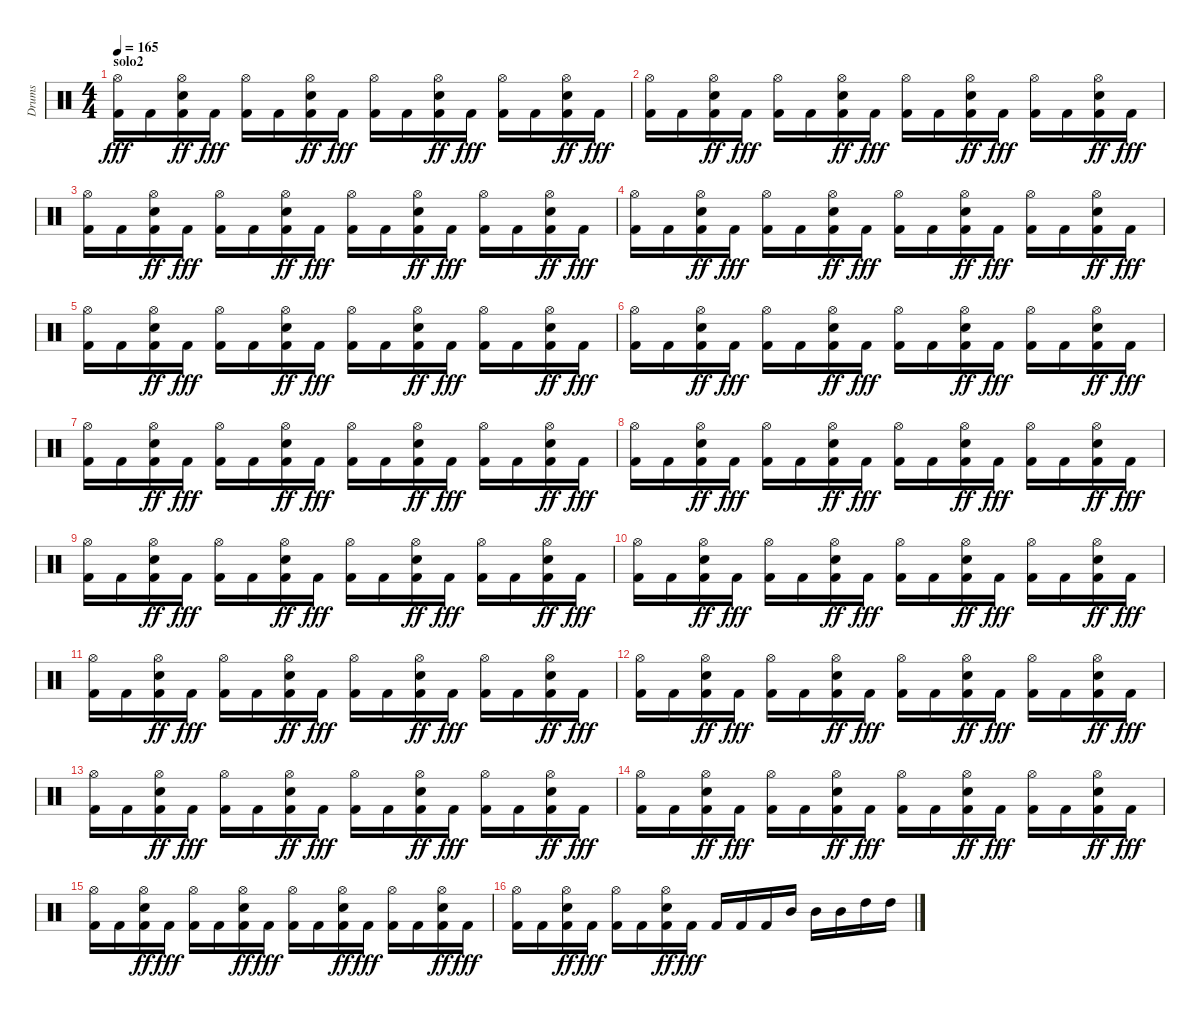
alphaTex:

\track ("Drums" "Drums") {instrument percussion}
\staff {score}
\articulation defaults
\ts (4 4)
\section ("" "solo2")
\tempo 165
\clef neutral
\ks c
("Kick (hit) 2" "Hi-Hat (open)").16{dy fff} "Kick (hit) 2".16 ("Kick (hit) 2" "Snare (hit) 2" "Hi-Hat (open)").16{dy ff} "Kick (hit) 2".16{dy fff} ("Kick (hit) 2" "Hi-Hat (open)").16 "Kick (hit) 2".16 ("Kick (hit) 2" "Snare (hit) 2" "Hi-Hat (open)").16{dy ff} "Kick (hit) 2".16{dy fff} ("Kick (hit) 2" "Hi-Hat (open)").16 "Kick (hit) 2".16 ("Kick (hit) 2" "Snare (hit) 2" "Hi-Hat (open)").16{dy ff} "Kick (hit) 2".16{dy fff} ("Kick (hit) 2" "Hi-Hat (open)").16 "Kick (hit) 2".16 ("Kick (hit) 2" "Snare (hit) 2" "Hi-Hat (open)").16{dy ff} "Kick (hit) 2".16{dy fff} |
("Kick (hit) 2" "Hi-Hat (open)").16 "Kick (hit) 2".16 ("Kick (hit) 2" "Snare (hit) 2" "Hi-Hat (open)").16{dy ff} "Kick (hit) 2".16{dy fff} ("Kick (hit) 2" "Hi-Hat (open)").16 "Kick (hit) 2".16 ("Kick (hit) 2" "Snare (hit) 2" "Hi-Hat (open)").16{dy ff} "Kick (hit) 2".16{dy fff} ("Kick (hit) 2" "Hi-Hat (open)").16 "Kick (hit) 2".16 ("Kick (hit) 2" "Snare (hit) 2" "Hi-Hat (open)").16{dy ff} "Kick (hit) 2".16{dy fff} ("Kick (hit) 2" "Hi-Hat (open)").16 "Kick (hit) 2".16 ("Kick (hit) 2" "Snare (hit) 2" "Hi-Hat (open)").16{dy ff} "Kick (hit) 2".16{dy fff} |
("Kick (hit) 2" "Hi-Hat (open)").16 "Kick (hit) 2".16 ("Kick (hit) 2" "Snare (hit) 2" "Hi-Hat (open)").16{dy ff} "Kick (hit) 2".16{dy fff} ("Kick (hit) 2" "Hi-Hat (open)").16 "Kick (hit) 2".16 ("Kick (hit) 2" "Snare (hit) 2" "Hi-Hat (open)").16{dy ff} "Kick (hit) 2".16{dy fff} ("Kick (hit) 2" "Hi-Hat (open)").16 "Kick (hit) 2".16 ("Kick (hit) 2" "Snare (hit) 2" "Hi-Hat (open)").16{dy ff} "Kick (hit) 2".16{dy fff} ("Kick (hit) 2" "Hi-Hat (open)").16 "Kick (hit) 2".16 ("Kick (hit) 2" "Snare (hit) 2" "Hi-Hat (open)").16{dy ff} "Kick (hit) 2".16{dy fff} |
("Kick (hit) 2" "Hi-Hat (open)").16 "Kick (hit) 2".16 ("Kick (hit) 2" "Snare (hit) 2" "Hi-Hat (open)").16{dy ff} "Kick (hit) 2".16{dy fff} ("Kick (hit) 2" "Hi-Hat (open)").16 "Kick (hit) 2".16 ("Kick (hit) 2" "Snare (hit) 2" "Hi-Hat (open)").16{dy ff} "Kick (hit) 2".16{dy fff} ("Kick (hit) 2" "Hi-Hat (open)").16 "Kick (hit) 2".16 ("Kick (hit) 2" "Snare (hit) 2" "Hi-Hat (open)").16{dy ff} "Kick (hit) 2".16{dy fff} ("Kick (hit) 2" "Hi-Hat (open)").16 "Kick (hit) 2".16 ("Kick (hit) 2" "Snare (hit) 2" "Hi-Hat (open)").16{dy ff} "Kick (hit) 2".16{dy fff} |
("Kick (hit) 2" "Hi-Hat (open)").16 "Kick (hit) 2".16 ("Kick (hit) 2" "Snare (hit) 2" "Hi-Hat (open)").16{dy ff} "Kick (hit) 2".16{dy fff} ("Kick (hit) 2" "Hi-Hat (open)").16 "Kick (hit) 2".16 ("Kick (hit) 2" "Snare (hit) 2" "Hi-Hat (open)").16{dy ff} "Kick (hit) 2".16{dy fff} ("Kick (hit) 2" "Hi-Hat (open)").16 "Kick (hit) 2".16 ("Kick (hit) 2" "Snare (hit) 2" "Hi-Hat (open)").16{dy ff} "Kick (hit) 2".16{dy fff} ("Kick (hit) 2" "Hi-Hat (open)").16 "Kick (hit) 2".16 ("Kick (hit) 2" "Snare (hit) 2" "Hi-Hat (open)").16{dy ff} "Kick (hit) 2".16{dy fff} |
("Kick (hit) 2" "Hi-Hat (open)").16 "Kick (hit) 2".16 ("Kick (hit) 2" "Snare (hit) 2" "Hi-Hat (open)").16{dy ff} "Kick (hit) 2".16{dy fff} ("Kick (hit) 2" "Hi-Hat (open)").16 "Kick (hit) 2".16 ("Kick (hit) 2" "Snare (hit) 2" "Hi-Hat (open)").16{dy ff} "Kick (hit) 2".16{dy fff} ("Kick (hit) 2" "Hi-Hat (open)").16 "Kick (hit) 2".16 ("Kick (hit) 2" "Snare (hit) 2" "Hi-Hat (open)").16{dy ff} "Kick (hit) 2".16{dy fff} ("Kick (hit) 2" "Hi-Hat (open)").16 "Kick (hit) 2".16 ("Kick (hit) 2" "Snare (hit) 2" "Hi-Hat (open)").16{dy ff} "Kick (hit) 2".16{dy fff} |
("Kick (hit) 2" "Hi-Hat (open)").16 "Kick (hit) 2".16 ("Kick (hit) 2" "Snare (hit) 2" "Hi-Hat (open)").16{dy ff} "Kick (hit) 2".16{dy fff} ("Kick (hit) 2" "Hi-Hat (open)").16 "Kick (hit) 2".16 ("Kick (hit) 2" "Snare (hit) 2" "Hi-Hat (open)").16{dy ff} "Kick (hit) 2".16{dy fff} ("Kick (hit) 2" "Hi-Hat (open)").16 "Kick (hit) 2".16 ("Kick (hit) 2" "Snare (hit) 2" "Hi-Hat (open)").16{dy ff} "Kick (hit) 2".16{dy fff} ("Kick (hit) 2" "Hi-Hat (open)").16 "Kick (hit) 2".16 ("Kick (hit) 2" "Snare (hit) 2" "Hi-Hat (open)").16{dy ff} "Kick (hit) 2".16{dy fff} |
("Kick (hit) 2" "Hi-Hat (open)").16 "Kick (hit) 2".16 ("Kick (hit) 2" "Snare (hit) 2" "Hi-Hat (open)").16{dy ff} "Kick (hit) 2".16{dy fff} ("Kick (hit) 2" "Hi-Hat (open)").16 "Kick (hit) 2".16 ("Kick (hit) 2" "Snare (hit) 2" "Hi-Hat (open)").16{dy ff} "Kick (hit) 2".16{dy fff} ("Kick (hit) 2" "Hi-Hat (open)").16 "Kick (hit) 2".16 ("Kick (hit) 2" "Snare (hit) 2" "Hi-Hat (open)").16{dy ff} "Kick (hit) 2".16{dy fff} ("Kick (hit) 2" "Hi-Hat (open)").16 "Kick (hit) 2".16 ("Kick (hit) 2" "Snare (hit) 2" "Hi-Hat (open)").16{dy ff} "Kick (hit) 2".16{dy fff} |
("Kick (hit) 2" "Hi-Hat (open)").16 "Kick (hit) 2".16 ("Kick (hit) 2" "Snare (hit) 2" "Hi-Hat (open)").16{dy ff} "Kick (hit) 2".16{dy fff} ("Kick (hit) 2" "Hi-Hat (open)").16 "Kick (hit) 2".16 ("Kick (hit) 2" "Snare (hit) 2" "Hi-Hat (open)").16{dy ff} "Kick (hit) 2".16{dy fff} ("Kick (hit) 2" "Hi-Hat (open)").16 "Kick (hit) 2".16 ("Kick (hit) 2" "Snare (hit) 2" "Hi-Hat (open)").16{dy ff} "Kick (hit) 2".16{dy fff} ("Kick (hit) 2" "Hi-Hat (open)").16 "Kick (hit) 2".16 ("Kick (hit) 2" "Snare (hit) 2" "Hi-Hat (open)").16{dy ff} "Kick (hit) 2".16{dy fff} |
("Kick (hit) 2" "Hi-Hat (open)").16 "Kick (hit) 2".16 ("Kick (hit) 2" "Snare (hit) 2" "Hi-Hat (open)").16{dy ff} "Kick (hit) 2".16{dy fff} ("Kick (hit) 2" "Hi-Hat (open)").16 "Kick (hit) 2".16 ("Kick (hit) 2" "Snare (hit) 2" "Hi-Hat (open)").16{dy ff} "Kick (hit) 2".16{dy fff} ("Kick (hit) 2" "Hi-Hat (open)").16 "Kick (hit) 2".16 ("Kick (hit) 2" "Snare (hit) 2" "Hi-Hat (open)").16{dy ff} "Kick (hit) 2".16{dy fff} ("Kick (hit) 2" "Hi-Hat (open)").16 "Kick (hit) 2".16 ("Kick (hit) 2" "Snare (hit) 2" "Hi-Hat (open)").16{dy ff} "Kick (hit) 2".16{dy fff} |
("Kick (hit) 2" "Hi-Hat (open)").16 "Kick (hit) 2".16 ("Kick (hit) 2" "Snare (hit) 2" "Hi-Hat (open)").16{dy ff} "Kick (hit) 2".16{dy fff} ("Kick (hit) 2" "Hi-Hat (open)").16 "Kick (hit) 2".16 ("Kick (hit) 2" "Snare (hit) 2" "Hi-Hat (open)").16{dy ff} "Kick (hit) 2".16{dy fff} ("Kick (hit) 2" "Hi-Hat (open)").16 "Kick (hit) 2".16 ("Kick (hit) 2" "Snare (hit) 2" "Hi-Hat (open)").16{dy ff} "Kick (hit) 2".16{dy fff} ("Kick (hit) 2" "Hi-Hat (open)").16 "Kick (hit) 2".16 ("Kick (hit) 2" "Snare (hit) 2" "Hi-Hat (open)").16{dy ff} "Kick (hit) 2".16{dy fff} |
("Kick (hit) 2" "Hi-Hat (open)").16 "Kick (hit) 2".16 ("Kick (hit) 2" "Snare (hit) 2" "Hi-Hat (open)").16{dy ff} "Kick (hit) 2".16{dy fff} ("Kick (hit) 2" "Hi-Hat (open)").16 "Kick (hit) 2".16 ("Kick (hit) 2" "Snare (hit) 2" "Hi-Hat (open)").16{dy ff} "Kick (hit) 2".16{dy fff} ("Kick (hit) 2" "Hi-Hat (open)").16 "Kick (hit) 2".16 ("Kick (hit) 2" "Snare (hit) 2" "Hi-Hat (open)").16{dy ff} "Kick (hit) 2".16{dy fff} ("Kick (hit) 2" "Hi-Hat (open)").16 "Kick (hit) 2".16 ("Kick (hit) 2" "Snare (hit) 2" "Hi-Hat (open)").16{dy ff} "Kick (hit) 2".16{dy fff} |
("Kick (hit) 2" "Hi-Hat (open)").16 "Kick (hit) 2".16 ("Kick (hit) 2" "Snare (hit) 2" "Hi-Hat (open)").16{dy ff} "Kick (hit) 2".16{dy fff} ("Kick (hit) 2" "Hi-Hat (open)").16 "Kick (hit) 2".16 ("Kick (hit) 2" "Snare (hit) 2" "Hi-Hat (open)").16{dy ff} "Kick (hit) 2".16{dy fff} ("Kick (hit) 2" "Hi-Hat (open)").16 "Kick (hit) 2".16 ("Kick (hit) 2" "Snare (hit) 2" "Hi-Hat (open)").16{dy ff} "Kick (hit) 2".16{dy fff} ("Kick (hit) 2" "Hi-Hat (open)").16 "Kick (hit) 2".16 ("Kick (hit) 2" "Snare (hit) 2" "Hi-Hat (open)").16{dy ff} "Kick (hit) 2".16{dy fff} |
("Kick (hit) 2" "Hi-Hat (open)").16 "Kick (hit) 2".16 ("Kick (hit) 2" "Snare (hit) 2" "Hi-Hat (open)").16{dy ff} "Kick (hit) 2".16{dy fff} ("Kick (hit) 2" "Hi-Hat (open)").16 "Kick (hit) 2".16 ("Kick (hit) 2" "Snare (hit) 2" "Hi-Hat (open)").16{dy ff} "Kick (hit) 2".16{dy fff} ("Kick (hit) 2" "Hi-Hat (open)").16 "Kick (hit) 2".16 ("Kick (hit) 2" "Snare (hit) 2" "Hi-Hat (open)").16{dy ff} "Kick (hit) 2".16{dy fff} ("Kick (hit) 2" "Hi-Hat (open)").16 "Kick (hit) 2".16 ("Kick (hit) 2" "Snare (hit) 2" "Hi-Hat (open)").16{dy ff} "Kick (hit) 2".16{dy fff} |
("Kick (hit) 2" "Hi-Hat (open)").16 "Kick (hit) 2".16 ("Kick (hit) 2" "Snare (hit) 2" "Hi-Hat (open)").16{dy ff} "Kick (hit) 2".16{dy fff} ("Kick (hit) 2" "Hi-Hat (open)").16 "Kick (hit) 2".16 ("Kick (hit) 2" "Snare (hit) 2" "Hi-Hat (open)").16{dy ff} "Kick (hit) 2".16{dy fff} ("Kick (hit) 2" "Hi-Hat (open)").16 "Kick (hit) 2".16 ("Kick (hit) 2" "Snare (hit) 2" "Hi-Hat (open)").16{dy ff} "Kick (hit) 2".16{dy fff} ("Kick (hit) 2" "Hi-Hat (open)").16 "Kick (hit) 2".16 ("Kick (hit) 2" "Snare (hit) 2" "Hi-Hat (open)").16{dy ff} "Kick (hit) 2".16{dy fff} |
("Kick (hit) 2" "Hi-Hat (open)").16 "Kick (hit) 2".16 ("Kick (hit) 2" "Snare (hit) 2" "Hi-Hat (open)").16{dy ff} "Kick (hit) 2".16{dy fff} ("Kick (hit) 2" "Hi-Hat (open)").16 "Kick (hit) 2".16 ("Kick (hit) 2" "Snare (hit) 2" "Hi-Hat (open)").16{dy ff} "Kick (hit) 2".16{dy fff} "Kick (hit) 2".16 "Kick (hit) 2".16 "Kick (hit) 2".16 "Mid Tom (hit)".16 "Mid Tom (hit)".16 "Mid Tom (hit)".16 "High Tom (hit)".16 "High Tom (hit)".16
